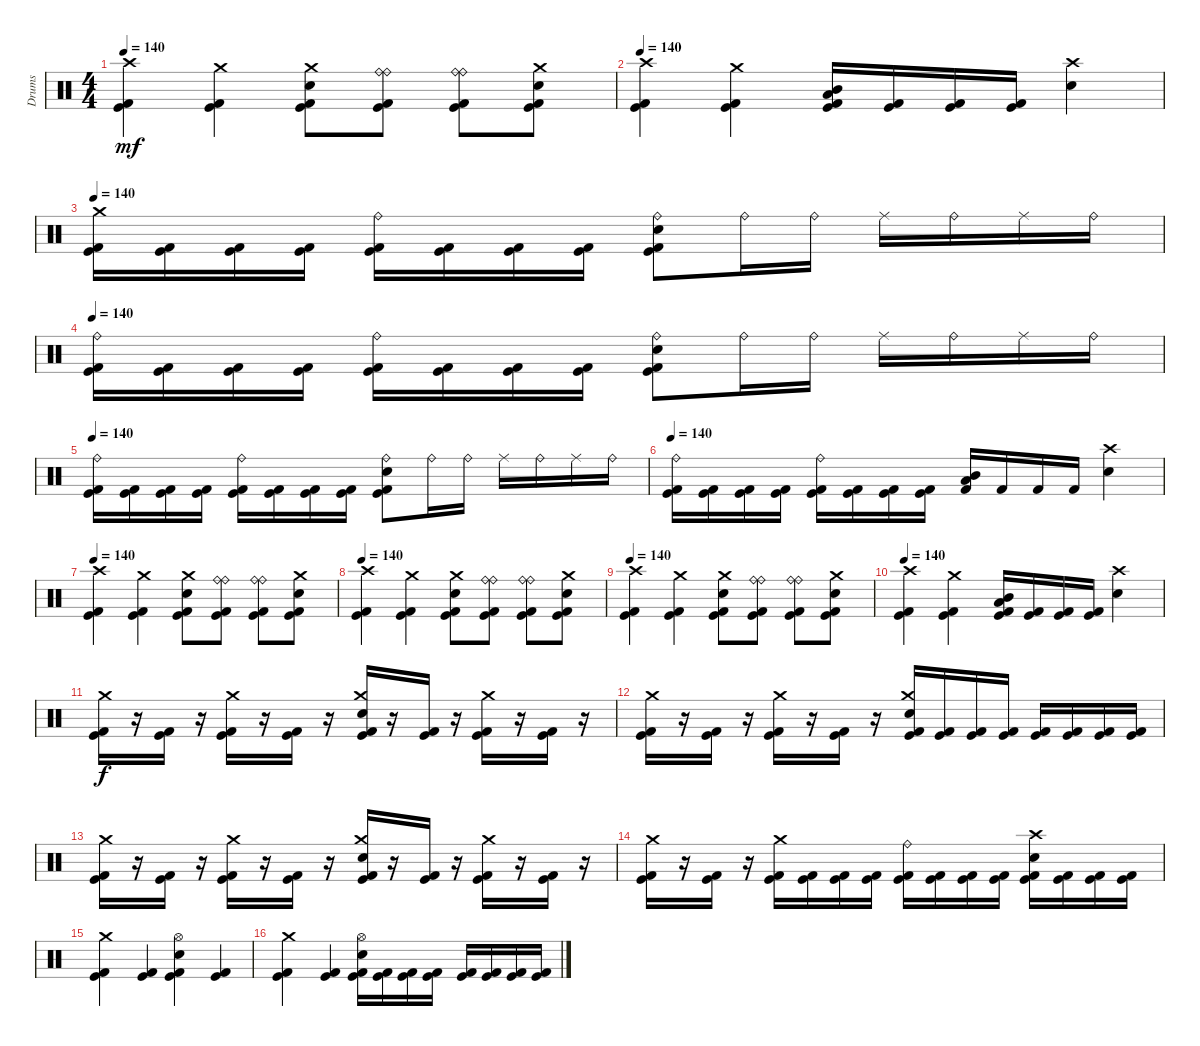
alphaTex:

\track ("Drums" "Drums") {instrument percussion}
\staff {score}
\articulation defaults
\ts (4 4)
\tempo 140
\clef neutral
\ks c
("Crash high (hit)" "Kick (hit) 2" "Kick (hit)").4{dy mf} ("Crash medium (hit)" "Kick (hit) 2" "Kick (hit)").4 ("Crash medium (hit)" "Electric Snare (hit)" "Kick (hit) 2" "Kick (hit)").8 ("Ride (bell)" "Ride (bell)" "Kick (hit) 2" "Kick (hit)").8 ("Ride (bell)" "Ride (bell)" "Kick (hit) 2" "Kick (hit)").8 ("Crash medium (hit)" "Electric Snare (hit)" "Kick (hit) 2" "Kick (hit)").8 |
\tempo 140
("Crash high (hit)" "Kick (hit) 2" "Kick (hit)").4 ("Crash medium (hit)" "Kick (hit) 2" "Kick (hit)").4 ("Mid Tom (hit)" "Low Tom (hit)" "Kick (hit) 2" "Kick (hit)").16 ("Kick (hit) 2" "Kick (hit)").16 ("Kick (hit) 2" "Kick (hit)").16 ("Kick (hit) 2" "Kick (hit)").16 ("Crash high (hit)" "Electric Snare (hit)").4 |
\tempo 140
("Crash medium (hit)" "Kick (hit) 2" "Kick (hit)").16 ("Kick (hit) 2" "Kick (hit)").16 ("Kick (hit) 2" "Kick (hit)").16 ("Kick (hit) 2" "Kick (hit)").16 ("Ride (bell)" "Kick (hit) 2" "Kick (hit)").16 ("Kick (hit) 2" "Kick (hit)").16 ("Kick (hit) 2" "Kick (hit)").16 ("Kick (hit) 2" "Kick (hit)").16 ("Ride (bell)" "Electric Snare (hit)" "Kick (hit) 2" "Kick (hit)").8 "Ride (bell)".16 "Ride (bell)".16 "Ride (middle)".16 "Ride (bell)".16 "Ride (middle)".16 "Ride (bell)".16 |
\tempo 140
("Ride (bell)" "Kick (hit) 2" "Kick (hit)").16 ("Kick (hit) 2" "Kick (hit)").16 ("Kick (hit) 2" "Kick (hit)").16 ("Kick (hit) 2" "Kick (hit)").16 ("Ride (bell)" "Kick (hit) 2" "Kick (hit)").16 ("Kick (hit) 2" "Kick (hit)").16 ("Kick (hit) 2" "Kick (hit)").16 ("Kick (hit) 2" "Kick (hit)").16 ("Ride (bell)" "Electric Snare (hit)" "Kick (hit) 2" "Kick (hit)").8 "Ride (bell)".16 "Ride (bell)".16 "Ride (middle)".16 "Ride (bell)".16 "Ride (middle)".16 "Ride (bell)".16 |
\tempo 140
("Ride (bell)" "Kick (hit) 2" "Kick (hit)").16 ("Kick (hit) 2" "Kick (hit)").16 ("Kick (hit) 2" "Kick (hit)").16 ("Kick (hit) 2" "Kick (hit)").16 ("Ride (bell)" "Kick (hit) 2" "Kick (hit)").16 ("Kick (hit) 2" "Kick (hit)").16 ("Kick (hit) 2" "Kick (hit)").16 ("Kick (hit) 2" "Kick (hit)").16 ("Ride (bell)" "Electric Snare (hit)" "Kick (hit) 2" "Kick (hit)").8 "Ride (bell)".16 "Ride (bell)".16 "Ride (middle)".16 "Ride (bell)".16 "Ride (middle)".16 "Ride (bell)".16 |
\tempo 140
("Ride (bell)" "Kick (hit) 2" "Kick (hit)").16 ("Kick (hit) 2" "Kick (hit)").16 ("Kick (hit) 2" "Kick (hit)").16 ("Kick (hit) 2" "Kick (hit)").16 ("Ride (bell)" "Kick (hit) 2" "Kick (hit)").16 ("Kick (hit) 2" "Kick (hit)").16 ("Kick (hit) 2" "Kick (hit)").16 ("Kick (hit) 2" "Kick (hit)").16 ("Mid Tom (hit)" "Low Tom (hit)" "Kick (hit) 2").16 "Kick (hit) 2".16 "Kick (hit) 2".16 "Kick (hit) 2".16 ("Crash high (hit)" "Electric Snare (hit)").4 |
\tempo 140
("Crash high (hit)" "Kick (hit) 2" "Kick (hit)").4 ("Crash medium (hit)" "Kick (hit) 2" "Kick (hit)").4 ("Crash medium (hit)" "Electric Snare (hit)" "Kick (hit) 2" "Kick (hit)").8 ("Ride (bell)" "Ride (bell)" "Kick (hit) 2" "Kick (hit)").8 ("Ride (bell)" "Ride (bell)" "Kick (hit) 2" "Kick (hit)").8 ("Crash medium (hit)" "Electric Snare (hit)" "Kick (hit) 2" "Kick (hit)").8 |
\tempo 140
("Crash high (hit)" "Kick (hit) 2" "Kick (hit)").4 ("Crash medium (hit)" "Kick (hit) 2" "Kick (hit)").4 ("Crash medium (hit)" "Electric Snare (hit)" "Kick (hit) 2" "Kick (hit)").8 ("Ride (bell)" "Ride (bell)" "Kick (hit) 2" "Kick (hit)").8 ("Ride (bell)" "Ride (bell)" "Kick (hit) 2" "Kick (hit)").8 ("Crash medium (hit)" "Electric Snare (hit)" "Kick (hit) 2" "Kick (hit)").8 |
\tempo 140
("Crash high (hit)" "Kick (hit) 2" "Kick (hit)").4 ("Crash medium (hit)" "Kick (hit) 2" "Kick (hit)").4 ("Crash medium (hit)" "Electric Snare (hit)" "Kick (hit) 2" "Kick (hit)").8 ("Ride (bell)" "Ride (bell)" "Kick (hit) 2" "Kick (hit)").8 ("Ride (bell)" "Ride (bell)" "Kick (hit) 2" "Kick (hit)").8 ("Crash medium (hit)" "Electric Snare (hit)" "Kick (hit) 2" "Kick (hit)").8 |
\tempo 140
("Crash high (hit)" "Kick (hit) 2" "Kick (hit)").4 ("Crash medium (hit)" "Kick (hit) 2" "Kick (hit)").4 ("Mid Tom (hit)" "Low Tom (hit)" "Kick (hit) 2" "Kick (hit)").16 ("Kick (hit) 2" "Kick (hit)").16 ("Kick (hit) 2" "Kick (hit)").16 ("Kick (hit) 2" "Kick (hit)").16 ("Crash high (hit)" "Electric Snare (hit)").4 |
("Crash medium (hit)" "Kick (hit)" "Kick (hit) 2").16{dy f} r.16 ("Kick (hit)" "Kick (hit) 2").16 r.16 ("Crash medium (hit)" "Kick (hit)" "Kick (hit) 2").16 r.16 ("Kick (hit)" "Kick (hit) 2").16 r.16 ("Crash medium (hit)" "Electric Snare (hit)" "Kick (hit)" "Kick (hit) 2").16 r.16 ("Kick (hit)" "Kick (hit) 2").16 r.16 ("Crash medium (hit)" "Kick (hit)" "Kick (hit) 2").16 r.16 ("Kick (hit)" "Kick (hit) 2").16 r.16 |
("Crash medium (hit)" "Kick (hit)" "Kick (hit) 2").16 r.16 ("Kick (hit)" "Kick (hit) 2").16 r.16 ("Crash medium (hit)" "Kick (hit)" "Kick (hit) 2").16 r.16 ("Kick (hit)" "Kick (hit) 2").16 r.16 ("Crash medium (hit)" "Electric Snare (hit)" "Kick (hit)" "Kick (hit) 2").16 ("Kick (hit)" "Kick (hit) 2").16 ("Kick (hit)" "Kick (hit) 2").16 ("Kick (hit)" "Kick (hit) 2").16 ("Kick (hit)" "Kick (hit) 2").16 ("Kick (hit)" "Kick (hit) 2").16 ("Kick (hit)" "Kick (hit) 2").16 ("Kick (hit)" "Kick (hit) 2").16 |
("Crash medium (hit)" "Kick (hit)" "Kick (hit) 2").16 r.16 ("Kick (hit)" "Kick (hit) 2").16 r.16 ("Crash medium (hit)" "Kick (hit)" "Kick (hit) 2").16 r.16 ("Kick (hit)" "Kick (hit) 2").16 r.16 ("Crash medium (hit)" "Electric Snare (hit)" "Kick (hit)" "Kick (hit) 2").16 r.16 ("Kick (hit)" "Kick (hit) 2").16 r.16 ("Crash medium (hit)" "Kick (hit)" "Kick (hit) 2").16 r.16 ("Kick (hit)" "Kick (hit) 2").16 r.16 |
("Crash medium (hit)" "Kick (hit)" "Kick (hit) 2").16 r.16 ("Kick (hit)" "Kick (hit) 2").16 r.16 ("Crash medium (hit)" "Kick (hit)" "Kick (hit) 2").16 ("Kick (hit)" "Kick (hit) 2").16 ("Kick (hit)" "Kick (hit) 2").16 ("Kick (hit)" "Kick (hit) 2").16 ("Ride (bell)" "Kick (hit)" "Kick (hit) 2").16 ("Kick (hit)" "Kick (hit) 2").16 ("Kick (hit)" "Kick (hit) 2").16 ("Kick (hit)" "Kick (hit) 2").16 ("Crash high (hit)" "Electric Snare (hit)" "Kick (hit)" "Kick (hit) 2").16 ("Kick (hit)" "Kick (hit) 2").16 ("Kick (hit)" "Kick (hit) 2").16 ("Kick (hit)" "Kick (hit) 2").16 |
("Crash medium (hit)" "Kick (hit)" "Kick (hit) 2").4 ("Kick (hit)" "Kick (hit) 2").4 ("Hi-Hat (open)" "Electric Snare (hit)" "Kick (hit)" "Kick (hit) 2").4 ("Kick (hit)" "Kick (hit) 2").4 |
("Crash medium (hit)" "Kick (hit)" "Kick (hit) 2").4 ("Kick (hit)" "Kick (hit) 2").4 ("Hi-Hat (open)" "Electric Snare (hit)" "Kick (hit)" "Kick (hit) 2").16 ("Kick (hit)" "Kick (hit) 2").16 ("Kick (hit)" "Kick (hit) 2").16 ("Kick (hit)" "Kick (hit) 2").16 ("Kick (hit)" "Kick (hit) 2").16 ("Kick (hit)" "Kick (hit) 2").16 ("Kick (hit)" "Kick (hit) 2").16 ("Kick (hit)" "Kick (hit) 2").16
